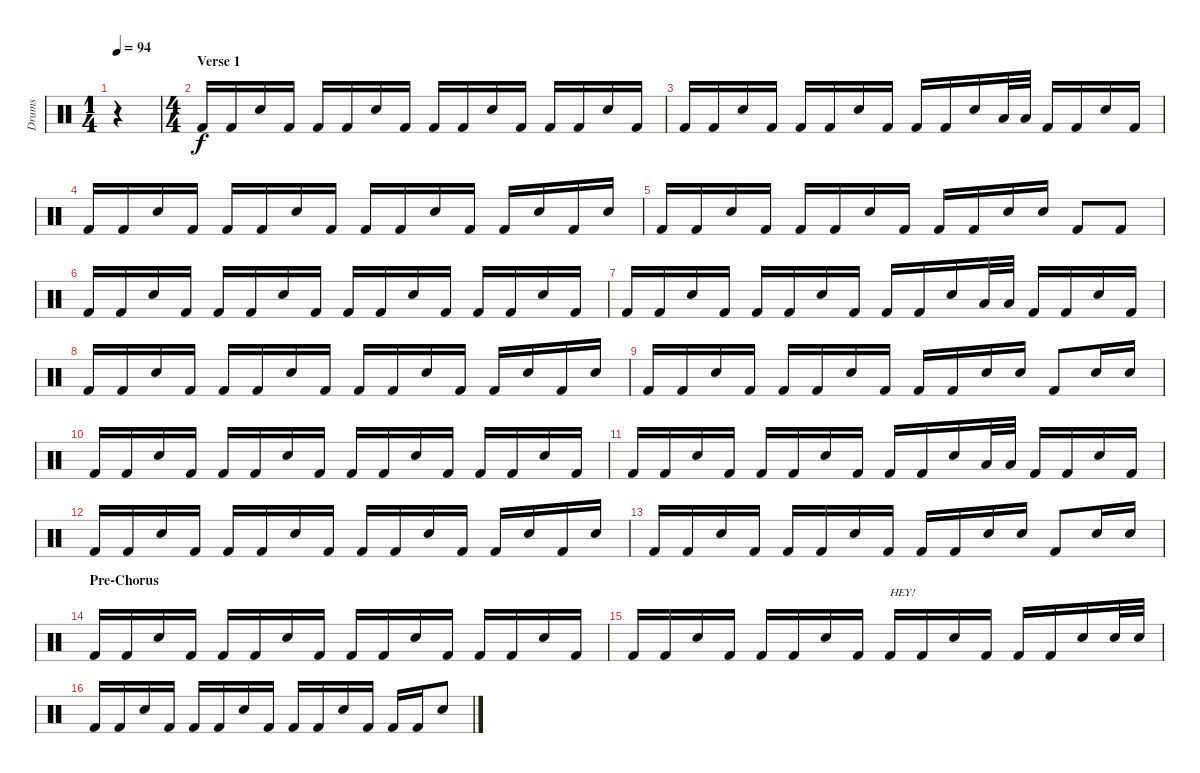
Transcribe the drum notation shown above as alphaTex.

\track ("Drums" "Drums") {instrument percussion}
\staff {score}
\articulation defaults
\ts (1 4)
\tempo 94
\clef neutral
\ks c
r.4{dy f} |
\ts (4 4)
\section ("" "Verse 1")
"Kick (hit) 2".16 "Kick (hit) 2".16 "Snare (hit) 2".16 "Kick (hit) 2".16 "Kick (hit) 2".16 "Kick (hit) 2".16 "Snare (hit) 2".16 "Kick (hit) 2".16 "Kick (hit) 2".16 "Kick (hit) 2".16 "Snare (hit) 2".16 "Kick (hit) 2".16 "Kick (hit) 2".16 "Kick (hit) 2".16 "Snare (hit) 2".16 "Kick (hit) 2".16 |
"Kick (hit) 2".16 "Kick (hit) 2".16 "Snare (hit) 2".16 "Kick (hit) 2".16 "Kick (hit) 2".16 "Kick (hit) 2".16 "Snare (hit) 2".16 "Kick (hit) 2".16 "Kick (hit) 2".16 "Kick (hit) 2".16 "Snare (hit) 2".16 "Low Tom (hit)".32 "Low Tom (hit)".32 "Kick (hit) 2".16 "Kick (hit) 2".16 "Snare (hit) 2".16 "Kick (hit) 2".16 |
"Kick (hit) 2".16 "Kick (hit) 2".16 "Snare (hit) 2".16 "Kick (hit) 2".16 "Kick (hit) 2".16 "Kick (hit) 2".16 "Snare (hit) 2".16 "Kick (hit) 2".16 "Kick (hit) 2".16 "Kick (hit) 2".16 "Snare (hit) 2".16 "Kick (hit) 2".16 "Kick (hit) 2".16 "Snare (hit) 2".16 "Kick (hit) 2".16 "Snare (hit) 2".16 |
"Kick (hit) 2".16 "Kick (hit) 2".16 "Snare (hit) 2".16 "Kick (hit) 2".16 "Kick (hit) 2".16 "Kick (hit) 2".16 "Snare (hit) 2".16 "Kick (hit) 2".16 "Kick (hit) 2".16 "Kick (hit) 2".16 "Snare (hit) 2".16 "Snare (hit) 2".16 "Kick (hit) 2".8 "Kick (hit) 2".8 |
"Kick (hit) 2".16 "Kick (hit) 2".16 "Snare (hit) 2".16 "Kick (hit) 2".16 "Kick (hit) 2".16 "Kick (hit) 2".16 "Snare (hit) 2".16 "Kick (hit) 2".16 "Kick (hit) 2".16 "Kick (hit) 2".16 "Snare (hit) 2".16 "Kick (hit) 2".16 "Kick (hit) 2".16 "Kick (hit) 2".16 "Snare (hit) 2".16 "Kick (hit) 2".16 |
"Kick (hit) 2".16 "Kick (hit) 2".16 "Snare (hit) 2".16 "Kick (hit) 2".16 "Kick (hit) 2".16 "Kick (hit) 2".16 "Snare (hit) 2".16 "Kick (hit) 2".16 "Kick (hit) 2".16 "Kick (hit) 2".16 "Snare (hit) 2".16 "Low Tom (hit)".32 "Low Tom (hit)".32 "Kick (hit) 2".16 "Kick (hit) 2".16 "Snare (hit) 2".16 "Kick (hit) 2".16 |
"Kick (hit) 2".16 "Kick (hit) 2".16 "Snare (hit) 2".16 "Kick (hit) 2".16 "Kick (hit) 2".16 "Kick (hit) 2".16 "Snare (hit) 2".16 "Kick (hit) 2".16 "Kick (hit) 2".16 "Kick (hit) 2".16 "Snare (hit) 2".16 "Kick (hit) 2".16 "Kick (hit) 2".16 "Snare (hit) 2".16 "Kick (hit) 2".16 "Snare (hit) 2".16 |
"Kick (hit) 2".16 "Kick (hit) 2".16 "Snare (hit) 2".16 "Kick (hit) 2".16 "Kick (hit) 2".16 "Kick (hit) 2".16 "Snare (hit) 2".16 "Kick (hit) 2".16 "Kick (hit) 2".16 "Kick (hit) 2".16 "Snare (hit) 2".16 "Snare (hit) 2".16 "Kick (hit) 2".8 "Snare (hit) 2".16 "Snare (hit) 2".16 |
"Kick (hit) 2".16 "Kick (hit) 2".16 "Snare (hit) 2".16 "Kick (hit) 2".16 "Kick (hit) 2".16 "Kick (hit) 2".16 "Snare (hit) 2".16 "Kick (hit) 2".16 "Kick (hit) 2".16 "Kick (hit) 2".16 "Snare (hit) 2".16 "Kick (hit) 2".16 "Kick (hit) 2".16 "Kick (hit) 2".16 "Snare (hit) 2".16 "Kick (hit) 2".16 |
"Kick (hit) 2".16 "Kick (hit) 2".16 "Snare (hit) 2".16 "Kick (hit) 2".16 "Kick (hit) 2".16 "Kick (hit) 2".16 "Snare (hit) 2".16 "Kick (hit) 2".16 "Kick (hit) 2".16 "Kick (hit) 2".16 "Snare (hit) 2".16 "Low Tom (hit)".32 "Low Tom (hit)".32 "Kick (hit) 2".16 "Kick (hit) 2".16 "Snare (hit) 2".16 "Kick (hit) 2".16 |
"Kick (hit) 2".16 "Kick (hit) 2".16 "Snare (hit) 2".16 "Kick (hit) 2".16 "Kick (hit) 2".16 "Kick (hit) 2".16 "Snare (hit) 2".16 "Kick (hit) 2".16 "Kick (hit) 2".16 "Kick (hit) 2".16 "Snare (hit) 2".16 "Kick (hit) 2".16 "Kick (hit) 2".16 "Snare (hit) 2".16 "Kick (hit) 2".16 "Snare (hit) 2".16 |
"Kick (hit) 2".16 "Kick (hit) 2".16 "Snare (hit) 2".16 "Kick (hit) 2".16 "Kick (hit) 2".16 "Kick (hit) 2".16 "Snare (hit) 2".16 "Kick (hit) 2".16 "Kick (hit) 2".16 "Kick (hit) 2".16 "Snare (hit) 2".16 "Snare (hit) 2".16 "Kick (hit) 2".8 "Snare (hit) 2".16 "Snare (hit) 2".16 |
\section ("" "Pre-Chorus")
"Kick (hit) 2".16 "Kick (hit) 2".16 "Snare (hit) 2".16 "Kick (hit) 2".16 "Kick (hit) 2".16 "Kick (hit) 2".16 "Snare (hit) 2".16 "Kick (hit) 2".16 "Kick (hit) 2".16 "Kick (hit) 2".16 "Snare (hit) 2".16 "Kick (hit) 2".16 "Kick (hit) 2".16 "Kick (hit) 2".16 "Snare (hit) 2".16 "Kick (hit) 2".16 |
"Kick (hit) 2".16 "Kick (hit) 2".16 "Snare (hit) 2".16 "Kick (hit) 2".16 "Kick (hit) 2".16 "Kick (hit) 2".16 "Snare (hit) 2".16 "Kick (hit) 2".16 "Kick (hit) 2".16{txt "HEY!"} "Kick (hit) 2".16 "Snare (hit) 2".16 "Kick (hit) 2".16 "Kick (hit) 2".16 "Kick (hit) 2".16 "Snare (hit) 2".16 "Snare (hit) 2".32 "Snare (hit) 2".32 |
"Kick (hit) 2".16 "Kick (hit) 2".16 "Snare (hit) 2".16 "Kick (hit) 2".16 "Kick (hit) 2".16 "Kick (hit) 2".16 "Snare (hit) 2".16 "Kick (hit) 2".16 "Kick (hit) 2".16 "Kick (hit) 2".16 "Snare (hit) 2".16 "Kick (hit) 2".16 "Kick (hit) 2".16 "Kick (hit) 2".16 "Snare (hit) 2".8
